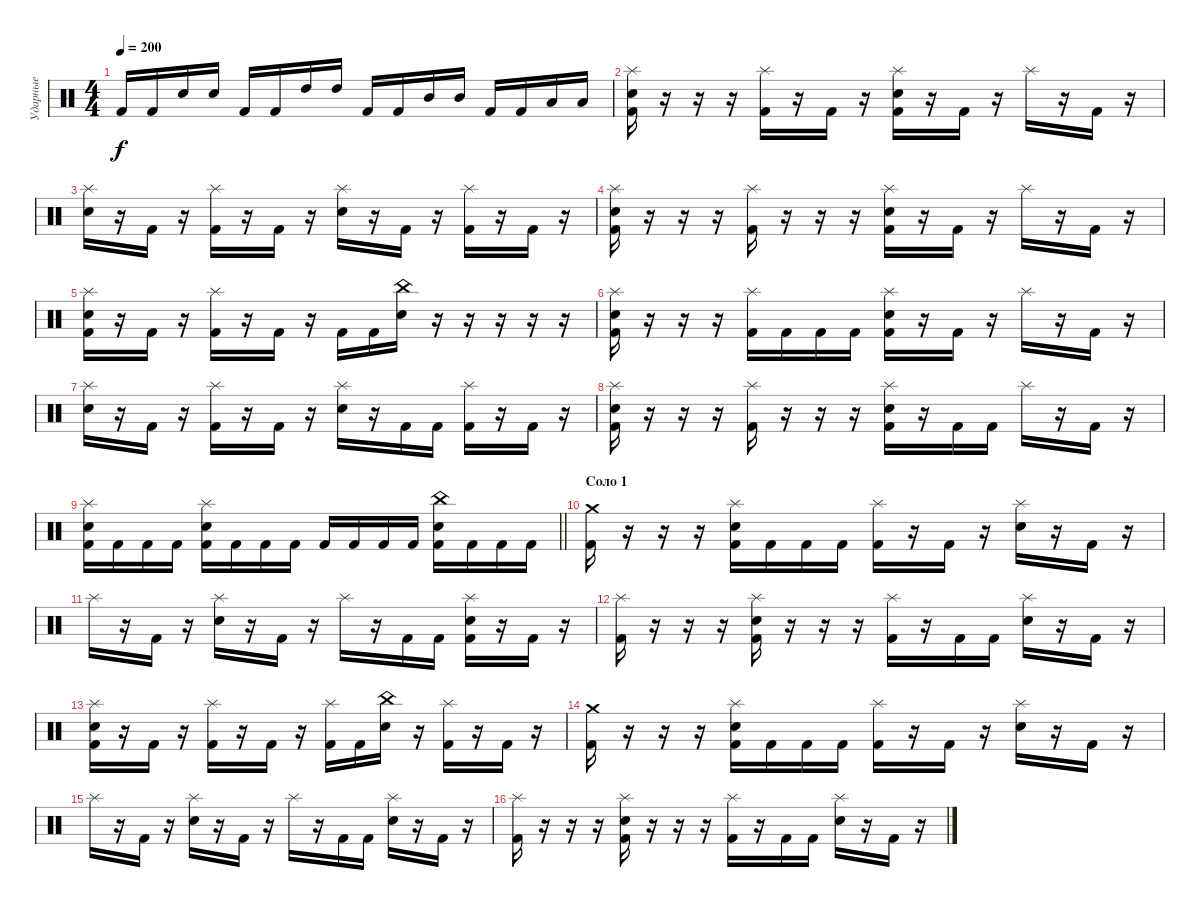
\track ("Ударные" "Ударные") {instrument percussion}
\staff {score}
\articulation defaults
\ts (4 4)
\tempo 200
\clef neutral
\ks c "Kick (hit) 2".16{dy f} "Kick (hit) 2".16 "Electric Snare (hit)".16 "Electric Snare (hit)".16 "Kick (hit) 2".16 "Kick (hit) 2".16 "High Tom (hit)".16 "High Tom (hit)".16 "Kick (hit) 2".16 "Kick (hit) 2".16 "Mid Tom (hit)".16 "Mid Tom (hit)".16 "Kick (hit) 2".16 "Kick (hit) 2".16 "Low Tom (hit)".16 "Low Tom (hit)".16
|
("Kick (hit) 2" "Electric Snare (hit)" "Splash (hit)").16 r.16 r.16 r.16 ("Kick (hit) 2" "Splash (hit)").16 r.16 "Kick (hit) 2".16 r.16 ("Kick (hit) 2" "Electric Snare (hit)" "Splash (hit)").16 r.16 "Kick (hit) 2".16 r.16 "Splash (hit)".16 r.16 "Kick (hit) 2".16 r.16 |
("Electric Snare (hit)" "Splash (hit)").16 r.16 "Kick (hit) 2".16 r.16 ("Kick (hit) 2" "Splash (hit)").16 r.16 "Kick (hit) 2".16 r.16 ("Electric Snare (hit)" "Splash (hit)").16 r.16 "Kick (hit) 2".16 r.16 ("Kick (hit) 2" "Splash (hit)").16 r.16 "Kick (hit) 2".16 r.16 |
("Kick (hit) 2" "Electric Snare (hit)" "Splash (hit)").16 r.16 r.16 r.16 ("Kick (hit) 2" "Splash (hit)").16 r.16 r.16 r.16 ("Kick (hit) 2" "Electric Snare (hit)" "Splash (hit)").16 r.16 "Kick (hit) 2".16 r.16 "Splash (hit)".16 r.16 "Kick (hit) 2".16 r.16 |
("Kick (hit) 2" "Electric Snare (hit)" "Splash (hit)").16 r.16 "Kick (hit) 2".16 r.16 ("Kick (hit) 2" "Splash (hit)").16 r.16 "Kick (hit) 2".16 r.16 "Kick (hit) 2".16 "Kick (hit) 2".16 ("Electric Snare (hit)" "China (hit)").16 r.16 r.16 r.16 r.16 r.16 |
("Kick (hit) 2" "Electric Snare (hit)" "Splash (hit)").16 r.16 r.16 r.16 ("Kick (hit) 2" "Splash (hit)").16 "Kick (hit) 2".16 "Kick (hit) 2".16 "Kick (hit) 2".16 ("Kick (hit) 2" "Electric Snare (hit)" "Splash (hit)").16 r.16 "Kick (hit) 2".16 r.16 "Splash (hit)".16 r.16 "Kick (hit) 2".16 r.16 |
("Electric Snare (hit)" "Splash (hit)").16 r.16 "Kick (hit) 2".16 r.16 ("Kick (hit) 2" "Splash (hit)").16 r.16 "Kick (hit) 2".16 r.16 ("Electric Snare (hit)" "Splash (hit)").16 r.16 "Kick (hit) 2".16 "Kick (hit) 2".16 ("Kick (hit) 2" "Splash (hit)").16 r.16 "Kick (hit) 2".16 r.16 |
("Kick (hit) 2" "Electric Snare (hit)" "Splash (hit)").16 r.16 r.16 r.16 ("Kick (hit) 2" "Splash (hit)").16 r.16 r.16 r.16 ("Kick (hit) 2" "Electric Snare (hit)" "Splash (hit)").16 r.16 "Kick (hit) 2".16 "Kick (hit) 2".16 "Splash (hit)".16 r.16 "Kick (hit) 2".16 r.16 |
\barLineRight lightlight
("Kick (hit) 2" "Electric Snare (hit)" "Splash (hit)").16 "Kick (hit) 2".16 "Kick (hit) 2".16 "Kick (hit) 2".16 ("Kick (hit) 2" "Electric Snare (hit)" "Splash (hit)").16 "Kick (hit) 2".16 "Kick (hit) 2".16 "Kick (hit) 2".16 "Kick (hit) 2".16 "Kick (hit) 2".16 "Kick (hit) 2".16 "Kick (hit) 2".16 ("Kick (hit) 2" "Electric Snare (hit)" "China (hit)").16 "Kick (hit) 2".16 "Kick (hit) 2".16 "Kick (hit) 2".16 |
\section ("" "Соло 1")
("Kick (hit) 2" "Crash medium (hit)").16 r.16 r.16 r.16 ("Kick (hit) 2" "Electric Snare (hit)" "Splash (hit)").16 "Kick (hit) 2".16 "Kick (hit) 2".16 "Kick (hit) 2".16 ("Kick (hit) 2" "Splash (hit)").16 r.16 "Kick (hit) 2".16 r.16 ("Electric Snare (hit)" "Splash (hit)").16 r.16 "Kick (hit) 2".16 r.16 |
"Splash (hit)".16 r.16 "Kick (hit) 2".16 r.16 ("Electric Snare (hit)" "Splash (hit)").16 r.16 "Kick (hit) 2".16 r.16 "Splash (hit)".16 r.16 "Kick (hit) 2".16 "Kick (hit) 2".16 ("Kick (hit) 2" "Electric Snare (hit)" "Splash (hit)").16 r.16 "Kick (hit) 2".16 r.16 |
("Kick (hit) 2" "Splash (hit)").16 r.16 r.16 r.16 ("Kick (hit) 2" "Electric Snare (hit)" "Splash (hit)").16 r.16 r.16 r.16 ("Kick (hit) 2" "Splash (hit)").16 r.16 "Kick (hit) 2".16 "Kick (hit) 2".16 ("Electric Snare (hit)" "Splash (hit)").16 r.16 "Kick (hit) 2".16 r.16 |
("Kick (hit) 2" "Electric Snare (hit)" "Splash (hit)").16 r.16 "Kick (hit) 2".16 r.16 ("Kick (hit) 2" "Splash (hit)").16 r.16 "Kick (hit) 2".16 r.16 ("Kick (hit) 2" "Splash (hit)").16 "Kick (hit) 2".16 ("Electric Snare (hit)" "China (hit)").16 r.16 ("Kick (hit) 2" "Splash (hit)").16 r.16 "Kick (hit) 2".16 r.16 |
("Kick (hit) 2" "Crash medium (hit)").16 r.16 r.16 r.16 ("Kick (hit) 2" "Electric Snare (hit)" "Splash (hit)").16 "Kick (hit) 2".16 "Kick (hit) 2".16 "Kick (hit) 2".16 ("Kick (hit) 2" "Splash (hit)").16 r.16 "Kick (hit) 2".16 r.16 ("Electric Snare (hit)" "Splash (hit)").16 r.16 "Kick (hit) 2".16 r.16 |
"Splash (hit)".16 r.16 "Kick (hit) 2".16 r.16 ("Electric Snare (hit)" "Splash (hit)").16 r.16 "Kick (hit) 2".16 r.16 "Splash (hit)".16 r.16 "Kick (hit) 2".16 "Kick (hit) 2".16 ("Electric Snare (hit)" "Splash (hit)").16 r.16 "Kick (hit) 2".16 r.16 |
("Kick (hit) 2" "Splash (hit)").16 r.16 r.16 r.16 ("Kick (hit) 2" "Electric Snare (hit)" "Splash (hit)").16 r.16 r.16 r.16 ("Kick (hit) 2" "Splash (hit)").16 r.16 "Kick (hit) 2".16 "Kick (hit) 2".16 ("Electric Snare (hit)" "Splash (hit)").16 r.16 "Kick (hit) 2".16 r.16
